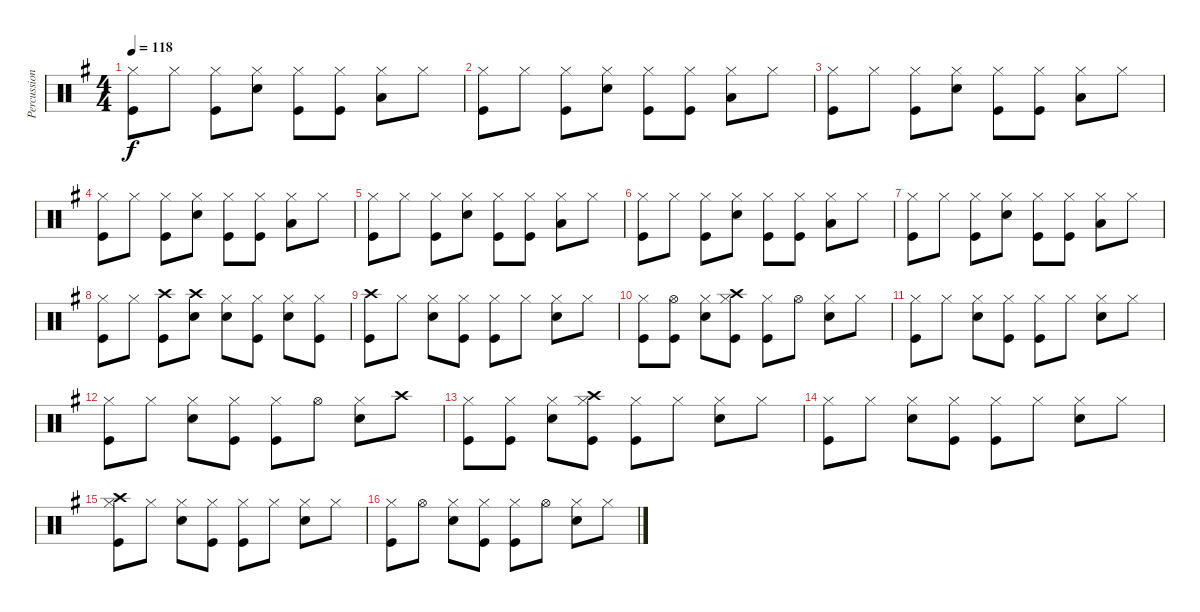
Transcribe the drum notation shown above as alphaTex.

\track ("Percussion" "Percussion") {instrument percussion}
\staff {score}
\articulation defaults
\ts (4 4)
\tempo 118
\clef neutral
\ks g
("Hi-Hat (closed)" "Kick (hit)").8{dy f} "Hi-Hat (closed)".8 ("Hi-Hat (closed)" "Kick (hit)").8 ("Hi-Hat (closed)" "Electric Snare (hit)").8 ("Hi-Hat (closed)" "Kick (hit)").8 ("Hi-Hat (closed)" "Kick (hit)").8 ("Hi-Hat (closed)" "Low Tom (hit)").8 "Hi-Hat (closed)".8 |
("Hi-Hat (closed)" "Kick (hit)").8 "Hi-Hat (closed)".8 ("Hi-Hat (closed)" "Kick (hit)").8 ("Hi-Hat (closed)" "Electric Snare (hit)").8 ("Hi-Hat (closed)" "Kick (hit)").8 ("Hi-Hat (closed)" "Kick (hit)").8 ("Hi-Hat (closed)" "Low Tom (hit)").8 "Hi-Hat (closed)".8 |
("Hi-Hat (closed)" "Kick (hit)").8 "Hi-Hat (closed)".8 ("Hi-Hat (closed)" "Kick (hit)").8 ("Hi-Hat (closed)" "Electric Snare (hit)").8 ("Hi-Hat (closed)" "Kick (hit)").8 ("Hi-Hat (closed)" "Kick (hit)").8 ("Hi-Hat (closed)" "Low Tom (hit)").8 "Hi-Hat (closed)".8 |
("Hi-Hat (closed)" "Kick (hit)").8 "Hi-Hat (closed)".8 ("Hi-Hat (closed)" "Kick (hit)").8 ("Hi-Hat (closed)" "Electric Snare (hit)").8 ("Hi-Hat (closed)" "Kick (hit)").8 ("Hi-Hat (closed)" "Kick (hit)").8 ("Hi-Hat (closed)" "Low Tom (hit)").8 "Hi-Hat (closed)".8 |
("Hi-Hat (closed)" "Kick (hit)").8 "Hi-Hat (closed)".8 ("Hi-Hat (closed)" "Kick (hit)").8 ("Hi-Hat (closed)" "Electric Snare (hit)").8 ("Hi-Hat (closed)" "Kick (hit)").8 ("Hi-Hat (closed)" "Kick (hit)").8 ("Hi-Hat (closed)" "Low Tom (hit)").8 "Hi-Hat (closed)".8 |
("Hi-Hat (closed)" "Kick (hit)").8 "Hi-Hat (closed)".8 ("Hi-Hat (closed)" "Kick (hit)").8 ("Hi-Hat (closed)" "Electric Snare (hit)").8 ("Hi-Hat (closed)" "Kick (hit)").8 ("Hi-Hat (closed)" "Kick (hit)").8 ("Hi-Hat (closed)" "Low Tom (hit)").8 "Hi-Hat (closed)".8 |
("Hi-Hat (closed)" "Kick (hit)").8 "Hi-Hat (closed)".8 ("Hi-Hat (closed)" "Kick (hit)").8 ("Hi-Hat (closed)" "Electric Snare (hit)").8 ("Hi-Hat (closed)" "Kick (hit)").8 ("Hi-Hat (closed)" "Kick (hit)").8 ("Hi-Hat (closed)" "Low Tom (hit)").8 "Hi-Hat (closed)".8 |
("Hi-Hat (closed)" "Kick (hit)").8 "Hi-Hat (closed)".8 ("Crash high (hit)" "Kick (hit)").8 ("Crash high (hit)" "Electric Snare (hit)").8 ("Hi-Hat (closed)" "Electric Snare (hit)").8 ("Hi-Hat (closed)" "Kick (hit)").8 ("Hi-Hat (closed)" "Electric Snare (hit)").8 ("Hi-Hat (closed)" "Kick (hit)").8 |
("Crash high (hit)" "Kick (hit)").8 "Hi-Hat (closed)".8 ("Hi-Hat (closed)" "Electric Snare (hit)").8 ("Hi-Hat (closed)" "Kick (hit)").8 ("Hi-Hat (closed)" "Kick (hit)").8 "Hi-Hat (closed)".8 ("Hi-Hat (closed)" "Electric Snare (hit)").8 "Hi-Hat (closed)".8 |
("Hi-Hat (closed)" "Kick (hit)").8 ("Hi-Hat (open)" "Kick (hit)").8 ("Hi-Hat (closed)" "Electric Snare (hit)").8 ("Hi-Hat (closed)" "Crash high (hit)" "Kick (hit)").8 ("Hi-Hat (closed)" "Kick (hit)").8 "Hi-Hat (open)".8 ("Hi-Hat (closed)" "Electric Snare (hit)").8 "Hi-Hat (closed)".8 |
("Hi-Hat (closed)" "Kick (hit)").8 "Hi-Hat (closed)".8 ("Hi-Hat (closed)" "Electric Snare (hit)").8 ("Hi-Hat (closed)" "Kick (hit)").8 ("Hi-Hat (closed)" "Kick (hit)").8 "Hi-Hat (closed)".8 ("Hi-Hat (closed)" "Electric Snare (hit)").8 "Hi-Hat (closed)".8 |
("Hi-Hat (closed)" "Kick (hit)").8 "Hi-Hat (closed)".8 ("Hi-Hat (closed)" "Electric Snare (hit)").8 ("Hi-Hat (closed)" "Kick (hit)").8 ("Hi-Hat (closed)" "Kick (hit)").8 "Hi-Hat (open)".8 ("Hi-Hat (closed)" "Electric Snare (hit)").8 "Crash high (hit)".8 |
("Hi-Hat (closed)" "Kick (hit)").8 ("Hi-Hat (closed)" "Kick (hit)").8 ("Hi-Hat (closed)" "Electric Snare (hit)").8 ("Hi-Hat (closed)" "Crash high (hit)" "Kick (hit)").8 ("Hi-Hat (closed)" "Kick (hit)").8 "Hi-Hat (closed)".8 ("Hi-Hat (closed)" "Electric Snare (hit)").8 "Hi-Hat (closed)".8 |
("Hi-Hat (closed)" "Kick (hit)").8 "Hi-Hat (closed)".8 ("Hi-Hat (closed)" "Electric Snare (hit)").8 ("Hi-Hat (closed)" "Kick (hit)").8 ("Hi-Hat (closed)" "Kick (hit)").8 "Hi-Hat (closed)".8 ("Hi-Hat (closed)" "Electric Snare (hit)").8 "Hi-Hat (closed)".8 |
("Hi-Hat (closed)" "Crash high (hit)" "Kick (hit)").8 "Hi-Hat (closed)".8 ("Hi-Hat (closed)" "Electric Snare (hit)").8 ("Hi-Hat (closed)" "Kick (hit)").8 ("Hi-Hat (closed)" "Kick (hit)").8 "Hi-Hat (closed)".8 ("Hi-Hat (closed)" "Electric Snare (hit)").8 "Hi-Hat (closed)".8 |
("Hi-Hat (closed)" "Kick (hit)").8 "Hi-Hat (open)".8 ("Hi-Hat (closed)" "Electric Snare (hit)").8 ("Hi-Hat (closed)" "Kick (hit)").8 ("Hi-Hat (closed)" "Kick (hit)").8 "Hi-Hat (open)".8 ("Hi-Hat (closed)" "Electric Snare (hit)").8 "Hi-Hat (closed)".8
